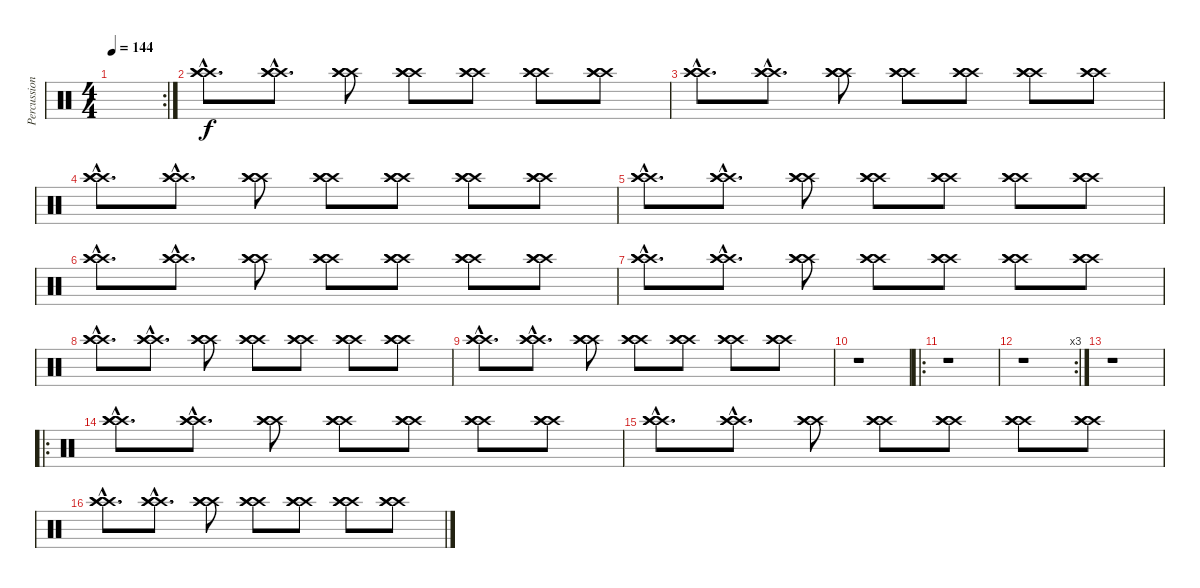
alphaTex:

\track ("Percussion 2" "Percussion") {instrument percussion}
\staff {score}
\articulation defaults
\rc 2
\ts (4 4)
\tempo 144
\clef neutral
\ks c
|
("Crash high (hit)"{hac} "Crash high (hit)"{hac} "Crash high (hit)"{hac}).8{d} ("Crash high (hit)"{hac} "Crash high (hit)" "Crash high (hit)").8{d} ("Crash high (hit)" "Crash high (hit)" "Crash high (hit)").8 ("Crash high (hit)" "Crash high (hit)" "Crash high (hit)").8 ("Crash high (hit)" "Crash high (hit)" "Crash high (hit)").8 ("Crash high (hit)" "Crash high (hit)" "Crash high (hit)").8 ("Crash high (hit)" "Crash high (hit)" "Crash high (hit)").8 |
("Crash high (hit)"{hac} "Crash high (hit)"{hac} "Crash high (hit)"{hac}).8{d} ("Crash high (hit)"{hac} "Crash high (hit)" "Crash high (hit)").8{d} ("Crash high (hit)" "Crash high (hit)" "Crash high (hit)").8 ("Crash high (hit)" "Crash high (hit)" "Crash high (hit)").8 ("Crash high (hit)" "Crash high (hit)" "Crash high (hit)").8 ("Crash high (hit)" "Crash high (hit)" "Crash high (hit)").8 ("Crash high (hit)" "Crash high (hit)" "Crash high (hit)").8 |
("Crash high (hit)"{hac} "Crash high (hit)"{hac} "Crash high (hit)"{hac}).8{d} ("Crash high (hit)"{hac} "Crash high (hit)" "Crash high (hit)").8{d} ("Crash high (hit)" "Crash high (hit)" "Crash high (hit)").8 ("Crash high (hit)" "Crash high (hit)" "Crash high (hit)").8 ("Crash high (hit)" "Crash high (hit)" "Crash high (hit)").8 ("Crash high (hit)" "Crash high (hit)" "Crash high (hit)").8 ("Crash high (hit)" "Crash high (hit)" "Crash high (hit)").8 |
("Crash high (hit)"{hac} "Crash high (hit)"{hac} "Crash high (hit)"{hac}).8{d} ("Crash high (hit)"{hac} "Crash high (hit)" "Crash high (hit)").8{d} ("Crash high (hit)" "Crash high (hit)" "Crash high (hit)").8 ("Crash high (hit)" "Crash high (hit)" "Crash high (hit)").8 ("Crash high (hit)" "Crash high (hit)" "Crash high (hit)").8 ("Crash high (hit)" "Crash high (hit)" "Crash high (hit)").8 ("Crash high (hit)" "Crash high (hit)" "Crash high (hit)").8 |
("Crash high (hit)"{hac} "Crash high (hit)"{hac} "Crash high (hit)"{hac}).8{d} ("Crash high (hit)"{hac} "Crash high (hit)" "Crash high (hit)").8{d} ("Crash high (hit)" "Crash high (hit)" "Crash high (hit)").8 ("Crash high (hit)" "Crash high (hit)" "Crash high (hit)").8 ("Crash high (hit)" "Crash high (hit)" "Crash high (hit)").8 ("Crash high (hit)" "Crash high (hit)" "Crash high (hit)").8 ("Crash high (hit)" "Crash high (hit)" "Crash high (hit)").8 |
("Crash high (hit)"{hac} "Crash high (hit)"{hac} "Crash high (hit)"{hac}).8{d} ("Crash high (hit)"{hac} "Crash high (hit)" "Crash high (hit)").8{d} ("Crash high (hit)" "Crash high (hit)" "Crash high (hit)").8 ("Crash high (hit)" "Crash high (hit)" "Crash high (hit)").8 ("Crash high (hit)" "Crash high (hit)" "Crash high (hit)").8 ("Crash high (hit)" "Crash high (hit)" "Crash high (hit)").8 ("Crash high (hit)" "Crash high (hit)" "Crash high (hit)").8 |
("Crash high (hit)"{hac} "Crash high (hit)"{hac} "Crash high (hit)"{hac}).8{d} ("Crash high (hit)"{hac} "Crash high (hit)" "Crash high (hit)").8{d} ("Crash high (hit)" "Crash high (hit)" "Crash high (hit)").8 ("Crash high (hit)" "Crash high (hit)" "Crash high (hit)").8 ("Crash high (hit)" "Crash high (hit)" "Crash high (hit)").8 ("Crash high (hit)" "Crash high (hit)" "Crash high (hit)").8 ("Crash high (hit)" "Crash high (hit)" "Crash high (hit)").8 |
("Crash high (hit)"{hac} "Crash high (hit)"{hac} "Crash high (hit)"{hac}).8{d} ("Crash high (hit)"{hac} "Crash high (hit)" "Crash high (hit)").8{d} ("Crash high (hit)" "Crash high (hit)" "Crash high (hit)").8 ("Crash high (hit)" "Crash high (hit)" "Crash high (hit)").8 ("Crash high (hit)" "Crash high (hit)" "Crash high (hit)").8 ("Crash high (hit)" "Crash high (hit)" "Crash high (hit)").8 ("Crash high (hit)" "Crash high (hit)" "Crash high (hit)").8 |
r.1 |
\ro
r.1 |
\rc 3
r.1 |
r.1 |
\ro
("Crash high (hit)"{hac} "Crash high (hit)"{hac} "Crash high (hit)"{hac}).8{d} ("Crash high (hit)"{hac} "Crash high (hit)" "Crash high (hit)").8{d} ("Crash high (hit)" "Crash high (hit)" "Crash high (hit)").8 ("Crash high (hit)" "Crash high (hit)" "Crash high (hit)").8 ("Crash high (hit)" "Crash high (hit)" "Crash high (hit)").8 ("Crash high (hit)" "Crash high (hit)" "Crash high (hit)").8 ("Crash high (hit)" "Crash high (hit)" "Crash high (hit)").8 |
("Crash high (hit)"{hac} "Crash high (hit)"{hac} "Crash high (hit)"{hac}).8{d} ("Crash high (hit)"{hac} "Crash high (hit)" "Crash high (hit)").8{d} ("Crash high (hit)" "Crash high (hit)" "Crash high (hit)").8 ("Crash high (hit)" "Crash high (hit)" "Crash high (hit)").8 ("Crash high (hit)" "Crash high (hit)" "Crash high (hit)").8 ("Crash high (hit)" "Crash high (hit)" "Crash high (hit)").8 ("Crash high (hit)" "Crash high (hit)" "Crash high (hit)").8 |
("Crash high (hit)"{hac} "Crash high (hit)"{hac} "Crash high (hit)"{hac}).8{d} ("Crash high (hit)"{hac} "Crash high (hit)" "Crash high (hit)").8{d} ("Crash high (hit)" "Crash high (hit)" "Crash high (hit)").8 ("Crash high (hit)" "Crash high (hit)" "Crash high (hit)").8 ("Crash high (hit)" "Crash high (hit)" "Crash high (hit)").8 ("Crash high (hit)" "Crash high (hit)" "Crash high (hit)").8 ("Crash high (hit)" "Crash high (hit)" "Crash high (hit)").8
